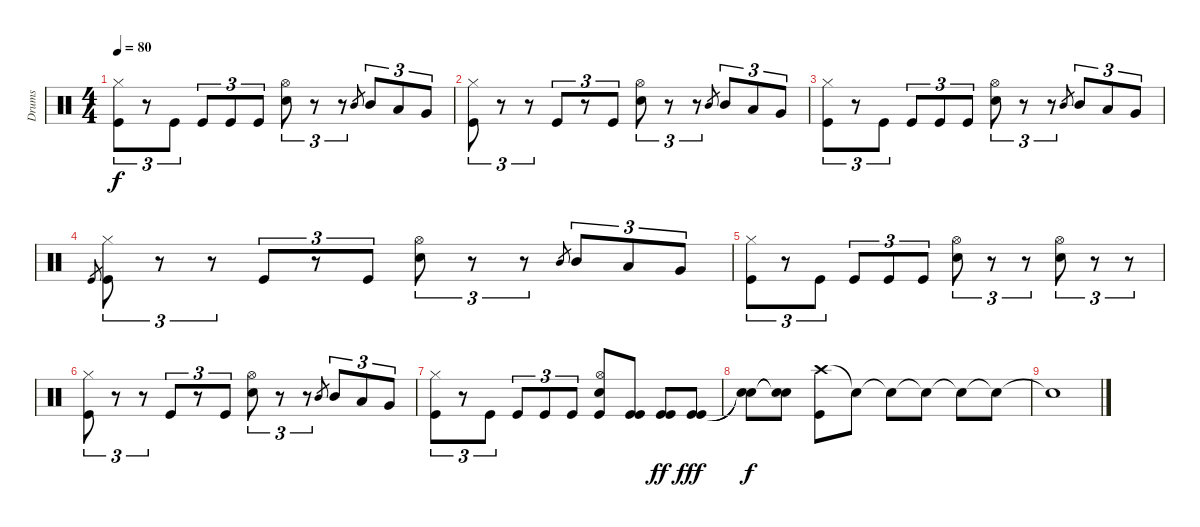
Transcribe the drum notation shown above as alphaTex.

\track ("Drums" "Drums") {instrument percussion}
\staff {score}
\articulation defaults
\ts (4 4)
\tempo 80
\clef neutral
\ks c
("Hi-Hat (closed)" "Kick (hit)").8{tu (3 2) dy f} r.8{tu (3 2)} "Kick (hit)".8{tu (3 2)} "Kick (hit)".8{tu (3 2)} "Kick (hit)".8{tu (3 2)} "Kick (hit)".8{tu (3 2)} ("Hi-Hat (open)" "Snare (hit) 2").8{tu (3 2)} r.8{tu (3 2)} r.8{tu (3 2)} "Mid Tom (hit)".8{gr} "Mid Tom (hit)".8{tu (3 2)} "Low Tom (hit)".8{tu (3 2)} "Very Low Tom (hit)".8{tu (3 2)} |
("Hi-Hat (closed)" "Kick (hit)").8{tu (3 2)} r.8{tu (3 2)} r.8{tu (3 2)} "Kick (hit)".8{tu (3 2)} r.8{tu (3 2)} "Kick (hit)".8{tu (3 2)} ("Hi-Hat (open)" "Snare (hit) 2").8{tu (3 2)} r.8{tu (3 2)} r.8{tu (3 2)} "Mid Tom (hit)".8{gr} "Mid Tom (hit)".8{tu (3 2)} "Low Tom (hit)".8{tu (3 2)} "Very Low Tom (hit)".8{tu (3 2)} |
("Hi-Hat (closed)" "Kick (hit)").8{tu (3 2)} r.8{tu (3 2)} "Kick (hit)".8{tu (3 2)} "Kick (hit)".8{tu (3 2)} "Kick (hit)".8{tu (3 2)} "Kick (hit)".8{tu (3 2)} ("Hi-Hat (open)" "Snare (hit) 2").8{tu (3 2)} r.8{tu (3 2)} r.8{tu (3 2)} "Mid Tom (hit)".8{gr} "Mid Tom (hit)".8{tu (3 2)} "Low Tom (hit)".8{tu (3 2)} "Very Low Tom (hit)".8{tu (3 2)} |
"Kick (hit)".8{gr} ("Hi-Hat (closed)" "Kick (hit)").8{tu (3 2)} r.8{tu (3 2)} r.8{tu (3 2)} "Kick (hit)".8{tu (3 2)} r.8{tu (3 2)} "Kick (hit)".8{tu (3 2)} ("Hi-Hat (open)" "Snare (hit) 2").8{tu (3 2)} r.8{tu (3 2)} r.8{tu (3 2)} "Mid Tom (hit)".8{gr} "Mid Tom (hit)".8{tu (3 2)} "Low Tom (hit)".8{tu (3 2)} "Very Low Tom (hit)".8{tu (3 2)} |
("Hi-Hat (closed)" "Kick (hit)").8{tu (3 2)} r.8{tu (3 2)} "Kick (hit)".8{tu (3 2)} "Kick (hit)".8{tu (3 2)} "Kick (hit)".8{tu (3 2)} "Kick (hit)".8{tu (3 2)} ("Hi-Hat (open)" "Snare (hit) 2").8{tu (3 2)} r.8{tu (3 2)} r.8{tu (3 2)} ("Hi-Hat (open)" "Snare (hit) 2").8{tu (3 2)} r.8{tu (3 2)} r.8{tu (3 2)} |
("Hi-Hat (closed)" "Kick (hit)").8{tu (3 2)} r.8{tu (3 2)} r.8{tu (3 2)} "Kick (hit)".8{tu (3 2)} r.8{tu (3 2)} "Kick (hit)".8{tu (3 2)} ("Hi-Hat (open)" "Snare (hit) 2").8{tu (3 2)} r.8{tu (3 2)} r.8{tu (3 2)} "Mid Tom (hit)".8{gr} "Mid Tom (hit)".8{tu (3 2)} "Low Tom (hit)".8{tu (3 2)} "Very Low Tom (hit)".8{tu (3 2)} |
("Hi-Hat (closed)" "Kick (hit)").8{tu (3 2)} r.8{tu (3 2)} "Kick (hit)".8{tu (3 2)} "Kick (hit)".8{tu (3 2)} "Kick (hit)".8{tu (3 2)} "Kick (hit)".8{tu (3 2)} ("Hi-Hat (open)" "Snare (hit) 2" "Kick (hit)").8 ("Kick (hit)" "Kick (hit)").8 ("Kick (hit)" "Kick (hit)").8{dy ff} ("Kick (hit)" "Kick (hit)").8{dy fff} |
("Snare (hit)"{t} "Snare (hit)"{t}).8{dy f} ("Snare (hit)"{t} "Snare (hit)"{t}).8 ("Crash high (hit)" "Kick (hit)").8 "Snare (hit)"{t}.8 "Snare (hit)"{t}.8 "Snare (hit)"{t}.8 "Snare (hit)"{t}.8 "Snare (hit)"{t}.8 |
"Snare (hit)"{t}.1
